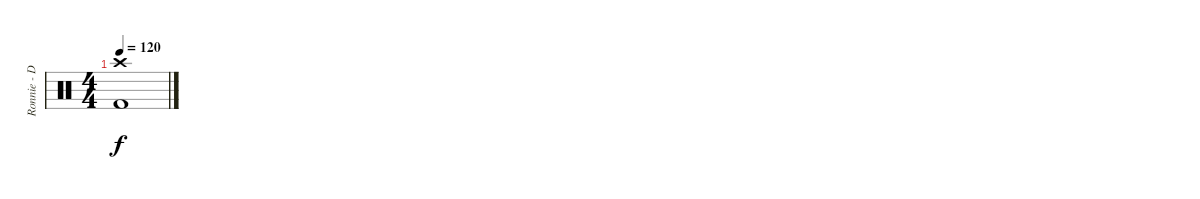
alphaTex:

\track ("Ronnie - Drums" "Ronnie - D") {instrument percussion}
\staff {score}
\articulation defaults
\ts (4 4)
\tempo 120
\clef neutral
\ks c
("Crash high (hit)" "Kick (hit) 2").1{dy f}
